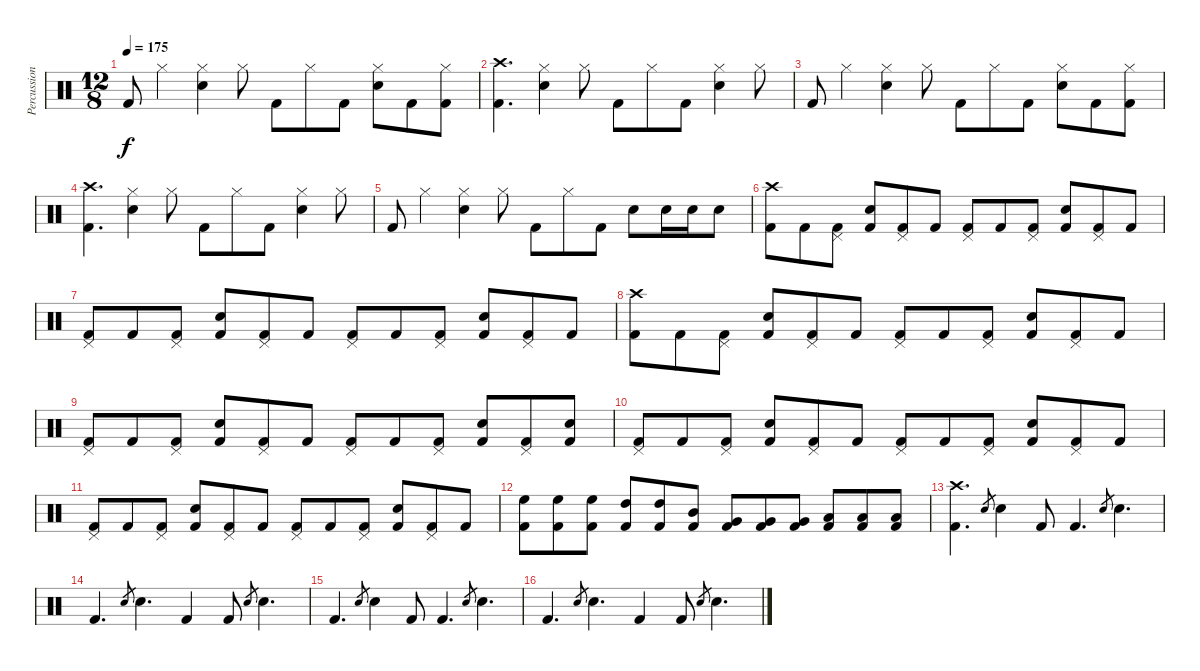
\track ("Percussion" "Percussion") {instrument percussion}
\staff {score}
\articulation defaults
\ts (12 8)
\tempo 175
\clef neutral
\ks c "Kick (hit) 2".8{dy f} "Hi-Hat (closed)".4
("Snare (hit) 2" "Hi-Hat (closed)").4 "Hi-Hat (closed)".8 "Kick (hit) 2".8 "Hi-Hat (closed)".8 "Kick (hit) 2".8 ("Snare (hit) 2" "Hi-Hat (closed)").8 "Kick (hit) 2".8 ("Kick (hit) 2" "Hi-Hat (closed)").8 |
("Kick (hit) 2" "Crash high (hit)").4{d} ("Snare (hit) 2" "Hi-Hat (closed)").4 "Hi-Hat (closed)".8 "Kick (hit) 2".8 "Hi-Hat (closed)".8 "Kick (hit) 2".8 ("Snare (hit) 2" "Hi-Hat (closed)").4 "Hi-Hat (closed)".8 |
"Kick (hit) 2".8 "Hi-Hat (closed)".4 ("Snare (hit) 2" "Hi-Hat (closed)").4 "Hi-Hat (closed)".8 "Kick (hit) 2".8 "Hi-Hat (closed)".8 "Kick (hit) 2".8 ("Snare (hit) 2" "Hi-Hat (closed)").8 "Kick (hit) 2".8 ("Kick (hit) 2" "Hi-Hat (closed)").8 |
("Kick (hit) 2" "Crash high (hit)").4{d} ("Snare (hit) 2" "Hi-Hat (closed)").4 "Hi-Hat (closed)".8 "Kick (hit) 2".8 "Hi-Hat (closed)".8 "Kick (hit) 2".8 ("Snare (hit) 2" "Hi-Hat (closed)").4 "Hi-Hat (closed)".8 |
"Kick (hit) 2".8 "Hi-Hat (closed)".4 ("Snare (hit) 2" "Hi-Hat (closed)").4 "Hi-Hat (closed)".8 "Kick (hit) 2".8 "Hi-Hat (closed)".8 "Kick (hit) 2".8 "Snare (hit) 2".8 "Snare (hit) 2".16 "Snare (hit) 2".16 "Snare (hit) 2".8 |
("Kick (hit) 2" "Crash high (hit)").8 "Kick (hit) 2".8 ("Kick (hit) 2" "Pedal Hi-Hat (hit)").8 ("Kick (hit) 2" "Snare (hit) 2").8 ("Kick (hit) 2" "Pedal Hi-Hat (hit)").8 "Kick (hit) 2".8 ("Kick (hit) 2" "Pedal Hi-Hat (hit)").8 "Kick (hit) 2".8 ("Kick (hit) 2" "Pedal Hi-Hat (hit)").8 ("Kick (hit) 2" "Snare (hit) 2").8 ("Kick (hit) 2" "Pedal Hi-Hat (hit)").8 "Kick (hit) 2".8 |
("Kick (hit) 2" "Pedal Hi-Hat (hit)").8 "Kick (hit) 2".8 ("Kick (hit) 2" "Pedal Hi-Hat (hit)").8 ("Kick (hit) 2" "Snare (hit) 2").8 ("Kick (hit) 2" "Pedal Hi-Hat (hit)").8 "Kick (hit) 2".8 ("Kick (hit) 2" "Pedal Hi-Hat (hit)").8 "Kick (hit) 2".8 ("Kick (hit) 2" "Pedal Hi-Hat (hit)").8 ("Kick (hit) 2" "Snare (hit) 2").8 ("Kick (hit) 2" "Pedal Hi-Hat (hit)").8 "Kick (hit) 2".8 |
("Kick (hit) 2" "Crash high (hit)").8 "Kick (hit) 2".8 ("Kick (hit) 2" "Pedal Hi-Hat (hit)").8 ("Kick (hit) 2" "Snare (hit) 2").8 ("Kick (hit) 2" "Pedal Hi-Hat (hit)").8 "Kick (hit) 2".8 ("Kick (hit) 2" "Pedal Hi-Hat (hit)").8 "Kick (hit) 2".8 ("Kick (hit) 2" "Pedal Hi-Hat (hit)").8 ("Kick (hit) 2" "Snare (hit) 2").8 ("Kick (hit) 2" "Pedal Hi-Hat (hit)").8 "Kick (hit) 2".8 |
("Kick (hit) 2" "Pedal Hi-Hat (hit)").8 "Kick (hit) 2".8 ("Kick (hit) 2" "Pedal Hi-Hat (hit)").8 ("Kick (hit) 2" "Snare (hit) 2").8 ("Kick (hit) 2" "Pedal Hi-Hat (hit)").8 "Kick (hit) 2".8 ("Kick (hit) 2" "Pedal Hi-Hat (hit)").8 "Kick (hit) 2".8 ("Kick (hit) 2" "Pedal Hi-Hat (hit)").8 ("Kick (hit) 2" "Snare (hit) 2").8 ("Kick (hit) 2" "Pedal Hi-Hat (hit)").8 ("Kick (hit) 2" "Snare (hit) 2").8 |
("Kick (hit) 2" "Pedal Hi-Hat (hit)").8 "Kick (hit) 2".8 ("Kick (hit) 2" "Pedal Hi-Hat (hit)").8 ("Kick (hit) 2" "Snare (hit) 2").8 ("Kick (hit) 2" "Pedal Hi-Hat (hit)").8 "Kick (hit) 2".8 ("Kick (hit) 2" "Pedal Hi-Hat (hit)").8 "Kick (hit) 2".8 ("Kick (hit) 2" "Pedal Hi-Hat (hit)").8 ("Kick (hit) 2" "Snare (hit) 2").8 ("Kick (hit) 2" "Pedal Hi-Hat (hit)").8 "Kick (hit) 2".8 |
("Kick (hit) 2" "Pedal Hi-Hat (hit)").8 "Kick (hit) 2".8 ("Kick (hit) 2" "Pedal Hi-Hat (hit)").8 ("Kick (hit) 2" "Snare (hit) 2").8 ("Kick (hit) 2" "Pedal Hi-Hat (hit)").8 "Kick (hit) 2".8 ("Kick (hit) 2" "Pedal Hi-Hat (hit)").8 "Kick (hit) 2".8 ("Kick (hit) 2" "Pedal Hi-Hat (hit)").8 ("Kick (hit) 2" "Snare (hit) 2").8 ("Kick (hit) 2" "Pedal Hi-Hat (hit)").8 "Kick (hit) 2".8 |
("Kick (hit) 2" "High Floor Tom (hit)").8 ("Kick (hit) 2" "High Floor Tom (hit)").8 ("Kick (hit) 2" "High Floor Tom (hit)").8 ("Kick (hit) 2" "High Tom (hit)").8 ("Kick (hit) 2" "High Tom (hit)").8 ("Kick (hit) 2" "Mid Tom (hit)").8 ("Kick (hit) 2" "Very Low Tom (hit)").8 ("Kick (hit) 2" "Very Low Tom (hit)").8 ("Kick (hit) 2" "Very Low Tom (hit)").8 ("Kick (hit) 2" "Low Floor Tom (hit)").8 ("Kick (hit) 2" "Low Floor Tom (hit)").8 ("Kick (hit) 2" "Low Floor Tom (hit)").8 |
("Kick (hit) 2" "Crash high (hit)").4{d} "Snare (hit) 2".8{gr} "Snare (hit) 2".4 "Kick (hit) 2".8 "Kick (hit) 2".4{d} "Snare (hit) 2".8{gr} "Snare (hit) 2".4{d} |
"Kick (hit) 2".4{d} "Snare (hit) 2".8{gr} "Snare (hit) 2".4{d} "Kick (hit) 2".4 "Kick (hit) 2".8 "Snare (hit) 2".8{gr} "Snare (hit) 2".4{d} |
"Kick (hit) 2".4{d} "Snare (hit) 2".8{gr} "Snare (hit) 2".4 "Kick (hit) 2".8 "Kick (hit) 2".4{d} "Snare (hit) 2".8{gr} "Snare (hit) 2".4{d} |
"Kick (hit) 2".4{d} "Snare (hit) 2".8{gr} "Snare (hit) 2".4{d} "Kick (hit) 2".4 "Kick (hit) 2".8 "Snare (hit) 2".8{gr} "Snare (hit) 2".4{d}
